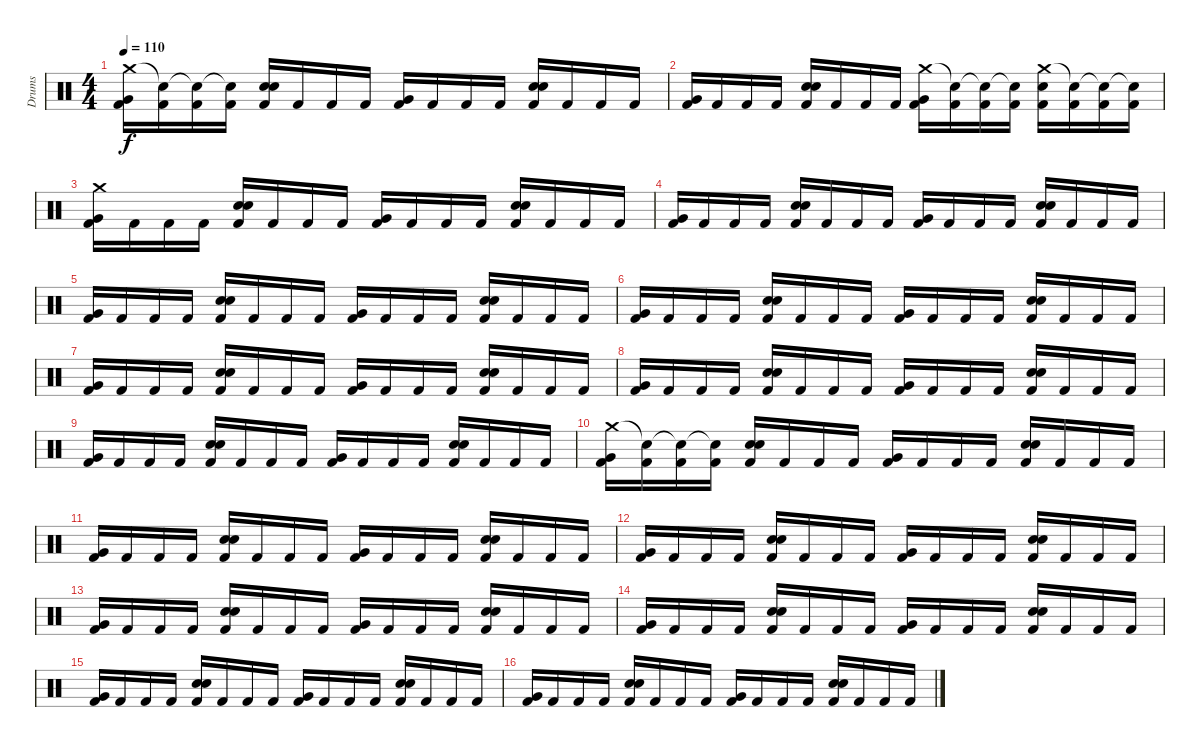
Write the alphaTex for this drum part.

\track ("Drums" "Drums") {instrument percussion}
\staff {score}
\articulation defaults
\ts (4 4)
\tempo 110
\clef neutral
\ks c
("Crash medium (hit)" "Very Low Tom (hit)" "Kick (hit) 2").16{dy f} ("Snare (hit)"{t} "Kick (hit) 2").16 ("Snare (hit)"{t} "Kick (hit) 2").16 ("Snare (hit)"{t} "Kick (hit) 2").16 ("Electric Snare (hit)" "Electric Snare (hit)" "Kick (hit) 2").16 "Kick (hit) 2".16 "Kick (hit) 2".16 "Kick (hit) 2".16 ("Very Low Tom (hit)" "Kick (hit) 2").16 "Kick (hit) 2".16 "Kick (hit) 2".16 "Kick (hit) 2".16 ("Electric Snare (hit)" "Electric Snare (hit)" "Kick (hit) 2").16 "Kick (hit) 2".16 "Kick (hit) 2".16 "Kick (hit) 2".16 |
("Very Low Tom (hit)" "Kick (hit) 2").16 "Kick (hit) 2".16 "Kick (hit) 2".16 "Kick (hit) 2".16 ("Electric Snare (hit)" "Electric Snare (hit)" "Kick (hit) 2").16 "Kick (hit) 2".16 "Kick (hit) 2".16 "Kick (hit) 2".16 ("Crash medium (hit)" "Very Low Tom (hit)" "Kick (hit) 2").16 ("Snare (hit)"{t} "Kick (hit) 2").16 ("Snare (hit)"{t} "Kick (hit) 2").16 ("Snare (hit)"{t} "Kick (hit) 2").16 ("Crash medium (hit)" "Electric Snare (hit)" "Kick (hit) 2").16 ("Snare (hit)"{t} "Kick (hit) 2").16 ("Snare (hit)"{t} "Kick (hit) 2").16 ("Snare (hit)"{t} "Kick (hit) 2").16 |
("Crash medium (hit)" "Very Low Tom (hit)" "Kick (hit) 2").16 "Kick (hit) 2".16 "Kick (hit) 2".16 "Kick (hit) 2".16 ("Electric Snare (hit)" "Electric Snare (hit)" "Kick (hit) 2").16 "Kick (hit) 2".16 "Kick (hit) 2".16 "Kick (hit) 2".16 ("Very Low Tom (hit)" "Kick (hit) 2").16 "Kick (hit) 2".16 "Kick (hit) 2".16 "Kick (hit) 2".16 ("Electric Snare (hit)" "Electric Snare (hit)" "Kick (hit) 2").16 "Kick (hit) 2".16 "Kick (hit) 2".16 "Kick (hit) 2".16 |
("Very Low Tom (hit)" "Kick (hit) 2").16 "Kick (hit) 2".16 "Kick (hit) 2".16 "Kick (hit) 2".16 ("Electric Snare (hit)" "Electric Snare (hit)" "Kick (hit) 2").16 "Kick (hit) 2".16 "Kick (hit) 2".16 "Kick (hit) 2".16 ("Very Low Tom (hit)" "Kick (hit) 2").16 "Kick (hit) 2".16 "Kick (hit) 2".16 "Kick (hit) 2".16 ("Electric Snare (hit)" "Electric Snare (hit)" "Kick (hit) 2").16 "Kick (hit) 2".16 "Kick (hit) 2".16 "Kick (hit) 2".16 |
("Very Low Tom (hit)" "Kick (hit) 2").16 "Kick (hit) 2".16 "Kick (hit) 2".16 "Kick (hit) 2".16 ("Electric Snare (hit)" "Electric Snare (hit)" "Kick (hit) 2").16 "Kick (hit) 2".16 "Kick (hit) 2".16 "Kick (hit) 2".16 ("Very Low Tom (hit)" "Kick (hit) 2").16 "Kick (hit) 2".16 "Kick (hit) 2".16 "Kick (hit) 2".16 ("Electric Snare (hit)" "Electric Snare (hit)" "Kick (hit) 2").16 "Kick (hit) 2".16 "Kick (hit) 2".16 "Kick (hit) 2".16 |
("Very Low Tom (hit)" "Kick (hit) 2").16 "Kick (hit) 2".16 "Kick (hit) 2".16 "Kick (hit) 2".16 ("Electric Snare (hit)" "Electric Snare (hit)" "Kick (hit) 2").16 "Kick (hit) 2".16 "Kick (hit) 2".16 "Kick (hit) 2".16 ("Very Low Tom (hit)" "Kick (hit) 2").16 "Kick (hit) 2".16 "Kick (hit) 2".16 "Kick (hit) 2".16 ("Electric Snare (hit)" "Electric Snare (hit)" "Kick (hit) 2").16 "Kick (hit) 2".16 "Kick (hit) 2".16 "Kick (hit) 2".16 |
("Very Low Tom (hit)" "Kick (hit) 2").16 "Kick (hit) 2".16 "Kick (hit) 2".16 "Kick (hit) 2".16 ("Electric Snare (hit)" "Electric Snare (hit)" "Kick (hit) 2").16 "Kick (hit) 2".16 "Kick (hit) 2".16 "Kick (hit) 2".16 ("Very Low Tom (hit)" "Kick (hit) 2").16 "Kick (hit) 2".16 "Kick (hit) 2".16 "Kick (hit) 2".16 ("Electric Snare (hit)" "Electric Snare (hit)" "Kick (hit) 2").16 "Kick (hit) 2".16 "Kick (hit) 2".16 "Kick (hit) 2".16 |
("Very Low Tom (hit)" "Kick (hit) 2").16 "Kick (hit) 2".16 "Kick (hit) 2".16 "Kick (hit) 2".16 ("Electric Snare (hit)" "Electric Snare (hit)" "Kick (hit) 2").16 "Kick (hit) 2".16 "Kick (hit) 2".16 "Kick (hit) 2".16 ("Very Low Tom (hit)" "Kick (hit) 2").16 "Kick (hit) 2".16 "Kick (hit) 2".16 "Kick (hit) 2".16 ("Electric Snare (hit)" "Electric Snare (hit)" "Kick (hit) 2").16 "Kick (hit) 2".16 "Kick (hit) 2".16 "Kick (hit) 2".16 |
("Very Low Tom (hit)" "Kick (hit) 2").16 "Kick (hit) 2".16 "Kick (hit) 2".16 "Kick (hit) 2".16 ("Electric Snare (hit)" "Electric Snare (hit)" "Kick (hit) 2").16 "Kick (hit) 2".16 "Kick (hit) 2".16 "Kick (hit) 2".16 ("Very Low Tom (hit)" "Kick (hit) 2").16 "Kick (hit) 2".16 "Kick (hit) 2".16 "Kick (hit) 2".16 ("Electric Snare (hit)" "Electric Snare (hit)" "Kick (hit) 2").16 "Kick (hit) 2".16 "Kick (hit) 2".16 "Kick (hit) 2".16 |
("Crash medium (hit)" "Very Low Tom (hit)" "Kick (hit) 2").16 ("Snare (hit)"{t} "Kick (hit) 2").16 ("Snare (hit)"{t} "Kick (hit) 2").16 ("Snare (hit)"{t} "Kick (hit) 2").16 ("Electric Snare (hit)" "Electric Snare (hit)" "Kick (hit) 2").16 "Kick (hit) 2".16 "Kick (hit) 2".16 "Kick (hit) 2".16 ("Very Low Tom (hit)" "Kick (hit) 2").16 "Kick (hit) 2".16 "Kick (hit) 2".16 "Kick (hit) 2".16 ("Electric Snare (hit)" "Electric Snare (hit)" "Kick (hit) 2").16 "Kick (hit) 2".16 "Kick (hit) 2".16 "Kick (hit) 2".16 |
("Very Low Tom (hit)" "Kick (hit) 2").16 "Kick (hit) 2".16 "Kick (hit) 2".16 "Kick (hit) 2".16 ("Electric Snare (hit)" "Electric Snare (hit)" "Kick (hit) 2").16 "Kick (hit) 2".16 "Kick (hit) 2".16 "Kick (hit) 2".16 ("Very Low Tom (hit)" "Kick (hit) 2").16 "Kick (hit) 2".16 "Kick (hit) 2".16 "Kick (hit) 2".16 ("Electric Snare (hit)" "Electric Snare (hit)" "Kick (hit) 2").16 "Kick (hit) 2".16 "Kick (hit) 2".16 "Kick (hit) 2".16 |
("Very Low Tom (hit)" "Kick (hit) 2").16 "Kick (hit) 2".16 "Kick (hit) 2".16 "Kick (hit) 2".16 ("Electric Snare (hit)" "Electric Snare (hit)" "Kick (hit) 2").16 "Kick (hit) 2".16 "Kick (hit) 2".16 "Kick (hit) 2".16 ("Very Low Tom (hit)" "Kick (hit) 2").16 "Kick (hit) 2".16 "Kick (hit) 2".16 "Kick (hit) 2".16 ("Electric Snare (hit)" "Electric Snare (hit)" "Kick (hit) 2").16 "Kick (hit) 2".16 "Kick (hit) 2".16 "Kick (hit) 2".16 |
("Very Low Tom (hit)" "Kick (hit) 2").16 "Kick (hit) 2".16 "Kick (hit) 2".16 "Kick (hit) 2".16 ("Electric Snare (hit)" "Electric Snare (hit)" "Kick (hit) 2").16 "Kick (hit) 2".16 "Kick (hit) 2".16 "Kick (hit) 2".16 ("Very Low Tom (hit)" "Kick (hit) 2").16 "Kick (hit) 2".16 "Kick (hit) 2".16 "Kick (hit) 2".16 ("Electric Snare (hit)" "Electric Snare (hit)" "Kick (hit) 2").16 "Kick (hit) 2".16 "Kick (hit) 2".16 "Kick (hit) 2".16 |
("Very Low Tom (hit)" "Kick (hit) 2").16 "Kick (hit) 2".16 "Kick (hit) 2".16 "Kick (hit) 2".16 ("Electric Snare (hit)" "Electric Snare (hit)" "Kick (hit) 2").16 "Kick (hit) 2".16 "Kick (hit) 2".16 "Kick (hit) 2".16 ("Very Low Tom (hit)" "Kick (hit) 2").16 "Kick (hit) 2".16 "Kick (hit) 2".16 "Kick (hit) 2".16 ("Electric Snare (hit)" "Electric Snare (hit)" "Kick (hit) 2").16 "Kick (hit) 2".16 "Kick (hit) 2".16 "Kick (hit) 2".16 |
("Very Low Tom (hit)" "Kick (hit) 2").16 "Kick (hit) 2".16 "Kick (hit) 2".16 "Kick (hit) 2".16 ("Electric Snare (hit)" "Electric Snare (hit)" "Kick (hit) 2").16 "Kick (hit) 2".16 "Kick (hit) 2".16 "Kick (hit) 2".16 ("Very Low Tom (hit)" "Kick (hit) 2").16 "Kick (hit) 2".16 "Kick (hit) 2".16 "Kick (hit) 2".16 ("Electric Snare (hit)" "Electric Snare (hit)" "Kick (hit) 2").16 "Kick (hit) 2".16 "Kick (hit) 2".16 "Kick (hit) 2".16 |
("Very Low Tom (hit)" "Kick (hit) 2").16 "Kick (hit) 2".16 "Kick (hit) 2".16 "Kick (hit) 2".16 ("Electric Snare (hit)" "Electric Snare (hit)" "Kick (hit) 2").16 "Kick (hit) 2".16 "Kick (hit) 2".16 "Kick (hit) 2".16 ("Very Low Tom (hit)" "Kick (hit) 2").16 "Kick (hit) 2".16 "Kick (hit) 2".16 "Kick (hit) 2".16 ("Electric Snare (hit)" "Electric Snare (hit)" "Kick (hit) 2").16 "Kick (hit) 2".16 "Kick (hit) 2".16 "Kick (hit) 2".16
